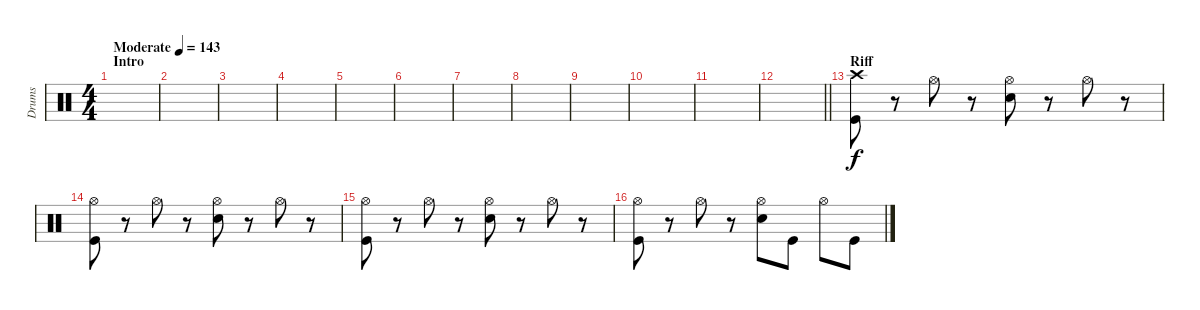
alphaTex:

\track ("Drums" "Drums") {instrument percussion}
\staff {score}
\articulation defaults
\ts (4 4)
\section ("" "Intro")
\tempo (143 "Moderate")
\clef neutral
\ks c
|
|
|
|
|
|
|
|
|
|
|
\barLineRight lightlight
|
\section ("" "Riff")
("Crash high (hit)" "Kick (hit)").8 r.8 "Hi-Hat (open)".8 r.8 ("Hi-Hat (open)" "Snare (hit) 2").8 r.8 "Hi-Hat (open)".8 r.8 |
("Hi-Hat (open)" "Kick (hit)").8 r.8 "Hi-Hat (open)".8 r.8 ("Hi-Hat (open)" "Snare (hit) 2").8 r.8 "Hi-Hat (open)".8 r.8 |
("Hi-Hat (open)" "Kick (hit)").8 r.8 "Hi-Hat (open)".8 r.8 ("Hi-Hat (open)" "Snare (hit) 2").8 r.8 "Hi-Hat (open)".8 r.8 |
("Hi-Hat (open)" "Kick (hit)").8 r.8 "Hi-Hat (open)".8 r.8 ("Hi-Hat (open)" "Snare (hit) 2").8 "Kick (hit)".8 "Hi-Hat (open)".8 "Kick (hit)".8
